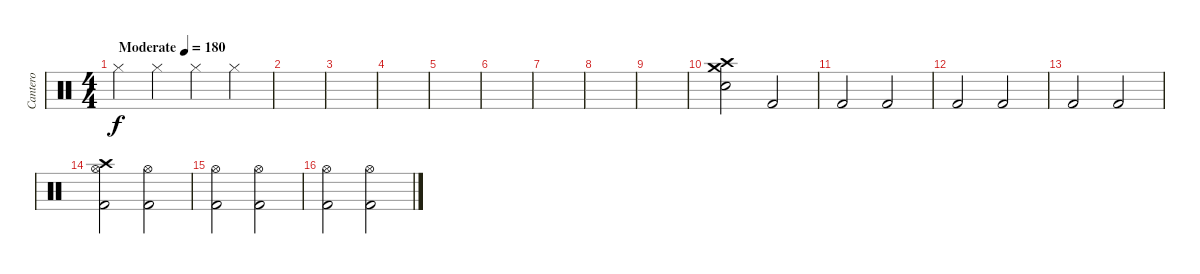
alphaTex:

\track ("Cantero" "Cantero") {instrument percussion}
\staff {score}
\articulation defaults
\ts (4 4)
\tempo (180 "Moderate")
\clef neutral
\ks c "Hi-Hat (closed)".4{dy f} "Hi-Hat (closed)".4 "Hi-Hat (closed)".4 "Hi-Hat (closed)".4
|
|
|
|
|
|
|
|
|
("Crash medium (hit)" "Crash high (hit)" "Electric Snare (hit)").2 "Kick (hit) 2".2 |
"Kick (hit) 2".2 "Kick (hit) 2".2 |
"Kick (hit) 2".2 "Kick (hit) 2".2 |
"Kick (hit) 2".2 "Kick (hit) 2".2 |
("Kick (hit) 2" "Crash high (hit)" "Hi-Hat (open)").2 ("Kick (hit) 2" "Hi-Hat (open)").2 |
("Kick (hit) 2" "Hi-Hat (open)").2 ("Kick (hit) 2" "Hi-Hat (open)").2 |
("Kick (hit) 2" "Hi-Hat (open)").2 ("Kick (hit) 2" "Hi-Hat (open)").2
